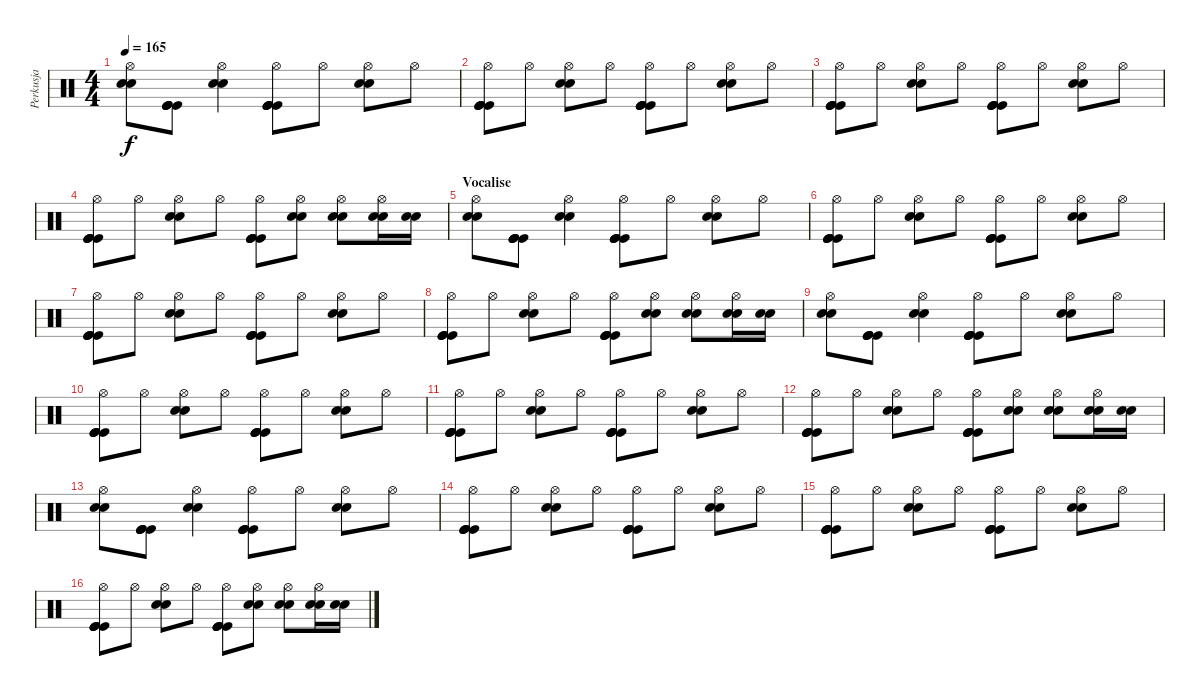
\track ("Perkusja" "Perkusja") {instrument percussion}
\staff {score}
\articulation defaults
\ts (4 4)
\tempo 165
\clef neutral
\ks c
("Hi-Hat (open)" "Snare (hit) 2" "Snare (hit) 2").8{dy f} ("Kick (hit)" "Kick (hit)" "Kick (hit)" "Kick (hit)").8 ("Hi-Hat (open)" "Snare (hit) 2" "Snare (hit) 2").4 ("Hi-Hat (open)" "Kick (hit)" "Kick (hit)" "Kick (hit)" "Kick (hit)").8 "Hi-Hat (open)".8 ("Hi-Hat (open)" "Snare (hit) 2" "Snare (hit) 2").8 "Hi-Hat (open)".8 |
("Hi-Hat (open)" "Kick (hit)" "Kick (hit)" "Kick (hit)" "Kick (hit)").8 "Hi-Hat (open)".8 ("Hi-Hat (open)" "Snare (hit) 2" "Snare (hit) 2").8 "Hi-Hat (open)".8 ("Hi-Hat (open)" "Kick (hit)" "Kick (hit)" "Kick (hit)" "Kick (hit)").8 "Hi-Hat (open)".8 ("Hi-Hat (open)" "Snare (hit) 2" "Snare (hit) 2").8 "Hi-Hat (open)".8 |
("Hi-Hat (open)" "Kick (hit)" "Kick (hit)" "Kick (hit)" "Kick (hit)").8 "Hi-Hat (open)".8 ("Hi-Hat (open)" "Snare (hit) 2" "Snare (hit) 2").8 "Hi-Hat (open)".8 ("Hi-Hat (open)" "Kick (hit)" "Kick (hit)" "Kick (hit)" "Kick (hit)").8 "Hi-Hat (open)".8 ("Hi-Hat (open)" "Snare (hit) 2" "Snare (hit) 2").8 "Hi-Hat (open)".8 |
("Hi-Hat (open)" "Kick (hit)" "Kick (hit)" "Kick (hit)" "Kick (hit)").8 "Hi-Hat (open)".8 ("Hi-Hat (open)" "Snare (hit) 2" "Snare (hit) 2").8 "Hi-Hat (open)".8 ("Hi-Hat (open)" "Kick (hit)" "Kick (hit)" "Kick (hit)" "Kick (hit)").8 ("Hi-Hat (open)" "Snare (hit) 2" "Snare (hit) 2").8 ("Hi-Hat (open)" "Snare (hit) 2" "Snare (hit) 2").8 ("Hi-Hat (open)" "Snare (hit) 2" "Snare (hit) 2").16 ("Snare (hit) 2" "Snare (hit) 2").16 |
\section ("" "Vocalise")
("Hi-Hat (open)" "Snare (hit) 2" "Snare (hit) 2").8 ("Kick (hit)" "Kick (hit)" "Kick (hit)" "Kick (hit)").8 ("Hi-Hat (open)" "Snare (hit) 2" "Snare (hit) 2").4 ("Hi-Hat (open)" "Kick (hit)" "Kick (hit)" "Kick (hit)" "Kick (hit)").8 "Hi-Hat (open)".8 ("Hi-Hat (open)" "Snare (hit) 2" "Snare (hit) 2").8 "Hi-Hat (open)".8 |
("Hi-Hat (open)" "Kick (hit)" "Kick (hit)" "Kick (hit)" "Kick (hit)").8 "Hi-Hat (open)".8 ("Hi-Hat (open)" "Snare (hit) 2" "Snare (hit) 2").8 "Hi-Hat (open)".8 ("Hi-Hat (open)" "Kick (hit)" "Kick (hit)" "Kick (hit)" "Kick (hit)").8 "Hi-Hat (open)".8 ("Hi-Hat (open)" "Snare (hit) 2" "Snare (hit) 2").8 "Hi-Hat (open)".8 |
("Hi-Hat (open)" "Kick (hit)" "Kick (hit)" "Kick (hit)" "Kick (hit)").8 "Hi-Hat (open)".8 ("Hi-Hat (open)" "Snare (hit) 2" "Snare (hit) 2").8 "Hi-Hat (open)".8 ("Hi-Hat (open)" "Kick (hit)" "Kick (hit)" "Kick (hit)" "Kick (hit)").8 "Hi-Hat (open)".8 ("Hi-Hat (open)" "Snare (hit) 2" "Snare (hit) 2").8 "Hi-Hat (open)".8 |
("Hi-Hat (open)" "Kick (hit)" "Kick (hit)" "Kick (hit)" "Kick (hit)").8 "Hi-Hat (open)".8 ("Hi-Hat (open)" "Snare (hit) 2" "Snare (hit) 2").8 "Hi-Hat (open)".8 ("Hi-Hat (open)" "Kick (hit)" "Kick (hit)" "Kick (hit)" "Kick (hit)").8 ("Hi-Hat (open)" "Snare (hit) 2" "Snare (hit) 2").8 ("Hi-Hat (open)" "Snare (hit) 2" "Snare (hit) 2").8 ("Hi-Hat (open)" "Snare (hit) 2" "Snare (hit) 2").16 ("Snare (hit) 2" "Snare (hit) 2").16 |
("Hi-Hat (open)" "Snare (hit) 2" "Snare (hit) 2").8 ("Kick (hit)" "Kick (hit)" "Kick (hit)" "Kick (hit)").8 ("Hi-Hat (open)" "Snare (hit) 2" "Snare (hit) 2").4 ("Hi-Hat (open)" "Kick (hit)" "Kick (hit)" "Kick (hit)" "Kick (hit)").8 "Hi-Hat (open)".8 ("Hi-Hat (open)" "Snare (hit) 2" "Snare (hit) 2").8 "Hi-Hat (open)".8 |
("Hi-Hat (open)" "Kick (hit)" "Kick (hit)" "Kick (hit)" "Kick (hit)").8 "Hi-Hat (open)".8 ("Hi-Hat (open)" "Snare (hit) 2" "Snare (hit) 2").8 "Hi-Hat (open)".8 ("Hi-Hat (open)" "Kick (hit)" "Kick (hit)" "Kick (hit)" "Kick (hit)").8 "Hi-Hat (open)".8 ("Hi-Hat (open)" "Snare (hit) 2" "Snare (hit) 2").8 "Hi-Hat (open)".8 |
("Hi-Hat (open)" "Kick (hit)" "Kick (hit)" "Kick (hit)" "Kick (hit)").8 "Hi-Hat (open)".8 ("Hi-Hat (open)" "Snare (hit) 2" "Snare (hit) 2").8 "Hi-Hat (open)".8 ("Hi-Hat (open)" "Kick (hit)" "Kick (hit)" "Kick (hit)" "Kick (hit)").8 "Hi-Hat (open)".8 ("Hi-Hat (open)" "Snare (hit) 2" "Snare (hit) 2").8 "Hi-Hat (open)".8 |
("Hi-Hat (open)" "Kick (hit)" "Kick (hit)" "Kick (hit)" "Kick (hit)").8 "Hi-Hat (open)".8 ("Hi-Hat (open)" "Snare (hit) 2" "Snare (hit) 2").8 "Hi-Hat (open)".8 ("Hi-Hat (open)" "Kick (hit)" "Kick (hit)" "Kick (hit)" "Kick (hit)").8 ("Hi-Hat (open)" "Snare (hit) 2" "Snare (hit) 2").8 ("Hi-Hat (open)" "Snare (hit) 2" "Snare (hit) 2").8 ("Hi-Hat (open)" "Snare (hit) 2" "Snare (hit) 2").16 ("Snare (hit) 2" "Snare (hit) 2").16 |
("Hi-Hat (open)" "Snare (hit) 2" "Snare (hit) 2").8 ("Kick (hit)" "Kick (hit)" "Kick (hit)" "Kick (hit)").8 ("Hi-Hat (open)" "Snare (hit) 2" "Snare (hit) 2").4 ("Hi-Hat (open)" "Kick (hit)" "Kick (hit)" "Kick (hit)" "Kick (hit)").8 "Hi-Hat (open)".8 ("Hi-Hat (open)" "Snare (hit) 2" "Snare (hit) 2").8 "Hi-Hat (open)".8 |
("Hi-Hat (open)" "Kick (hit)" "Kick (hit)" "Kick (hit)" "Kick (hit)").8 "Hi-Hat (open)".8 ("Hi-Hat (open)" "Snare (hit) 2" "Snare (hit) 2").8 "Hi-Hat (open)".8 ("Hi-Hat (open)" "Kick (hit)" "Kick (hit)" "Kick (hit)" "Kick (hit)").8 "Hi-Hat (open)".8 ("Hi-Hat (open)" "Snare (hit) 2" "Snare (hit) 2").8 "Hi-Hat (open)".8 |
("Hi-Hat (open)" "Kick (hit)" "Kick (hit)" "Kick (hit)" "Kick (hit)").8 "Hi-Hat (open)".8 ("Hi-Hat (open)" "Snare (hit) 2" "Snare (hit) 2").8 "Hi-Hat (open)".8 ("Hi-Hat (open)" "Kick (hit)" "Kick (hit)" "Kick (hit)" "Kick (hit)").8 "Hi-Hat (open)".8 ("Hi-Hat (open)" "Snare (hit) 2" "Snare (hit) 2").8 "Hi-Hat (open)".8 |
("Hi-Hat (open)" "Kick (hit)" "Kick (hit)" "Kick (hit)" "Kick (hit)").8 "Hi-Hat (open)".8 ("Hi-Hat (open)" "Snare (hit) 2" "Snare (hit) 2").8 "Hi-Hat (open)".8 ("Hi-Hat (open)" "Kick (hit)" "Kick (hit)" "Kick (hit)" "Kick (hit)").8 ("Hi-Hat (open)" "Snare (hit) 2" "Snare (hit) 2").8 ("Hi-Hat (open)" "Snare (hit) 2" "Snare (hit) 2").8 ("Hi-Hat (open)" "Snare (hit) 2" "Snare (hit) 2").16 ("Snare (hit) 2" "Snare (hit) 2").16
